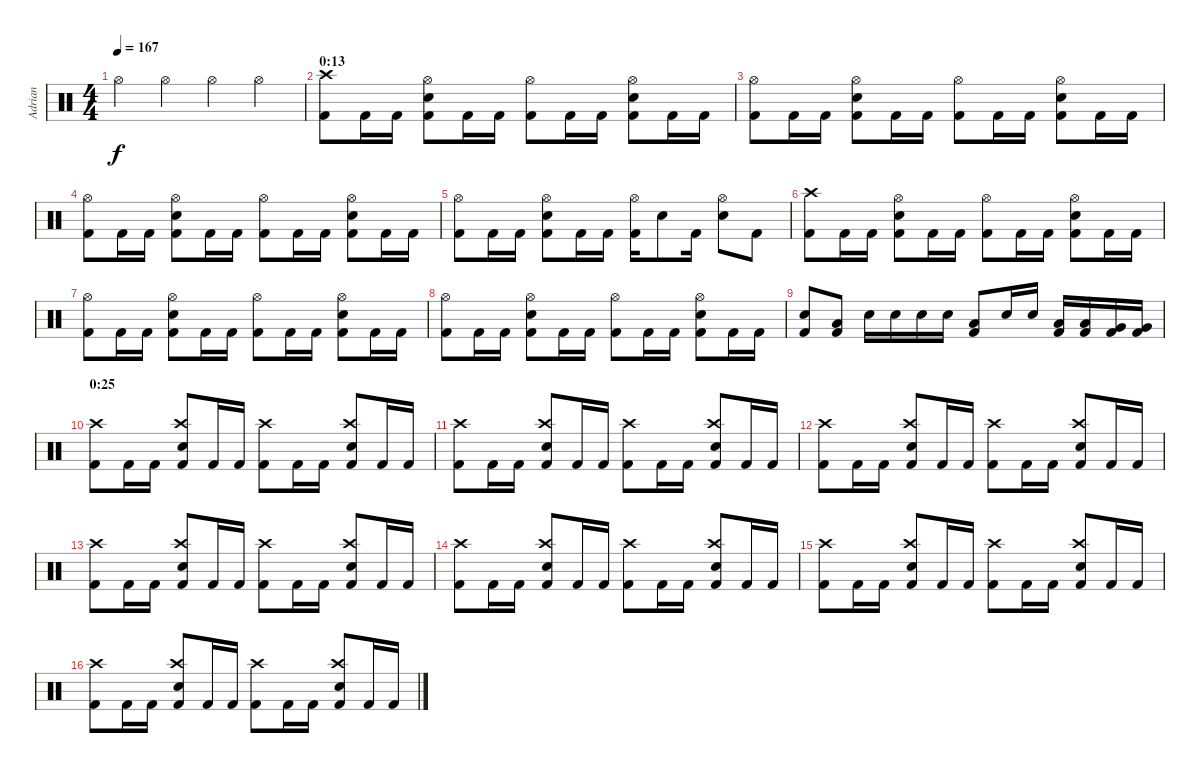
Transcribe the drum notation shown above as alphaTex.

\track ("Adrian" "Adrian") {instrument percussion}
\staff {score}
\articulation defaults
\ts (4 4)
\tempo 167
\clef neutral
\ks c "Hi-Hat (open)".4{dy f} "Hi-Hat (open)".4 "Hi-Hat (open)".4 "Hi-Hat (open)".4
|
\section ("" "0:13")
("Kick (hit) 2" "Crash high (hit)").8 "Kick (hit) 2".16 "Kick (hit) 2".16 ("Kick (hit) 2" "Snare (hit) 2" "Hi-Hat (open)").8 "Kick (hit) 2".16 "Kick (hit) 2".16 ("Kick (hit) 2" "Hi-Hat (open)").8 "Kick (hit) 2".16 "Kick (hit) 2".16 ("Kick (hit) 2" "Snare (hit) 2" "Hi-Hat (open)").8 "Kick (hit) 2".16 "Kick (hit) 2".16 |
("Kick (hit) 2" "Hi-Hat (open)").8 "Kick (hit) 2".16 "Kick (hit) 2".16 ("Kick (hit) 2" "Snare (hit) 2" "Hi-Hat (open)").8 "Kick (hit) 2".16 "Kick (hit) 2".16 ("Kick (hit) 2" "Hi-Hat (open)").8 "Kick (hit) 2".16 "Kick (hit) 2".16 ("Kick (hit) 2" "Snare (hit) 2" "Hi-Hat (open)").8 "Kick (hit) 2".16 "Kick (hit) 2".16 |
("Kick (hit) 2" "Hi-Hat (open)").8 "Kick (hit) 2".16 "Kick (hit) 2".16 ("Kick (hit) 2" "Snare (hit) 2" "Hi-Hat (open)").8 "Kick (hit) 2".16 "Kick (hit) 2".16 ("Kick (hit) 2" "Hi-Hat (open)").8 "Kick (hit) 2".16 "Kick (hit) 2".16 ("Kick (hit) 2" "Snare (hit) 2" "Hi-Hat (open)").8 "Kick (hit) 2".16 "Kick (hit) 2".16 |
("Kick (hit) 2" "Hi-Hat (open)").8 "Kick (hit) 2".16 "Kick (hit) 2".16 ("Kick (hit) 2" "Snare (hit) 2" "Hi-Hat (open)").8 "Kick (hit) 2".16 "Kick (hit) 2".16 ("Kick (hit) 2" "Hi-Hat (open)").16 "Snare (hit) 2".8 "Kick (hit) 2".16 ("Snare (hit) 2" "Hi-Hat (open)").8 "Kick (hit) 2".8 |
("Kick (hit) 2" "Crash high (hit)").8 "Kick (hit) 2".16 "Kick (hit) 2".16 ("Kick (hit) 2" "Snare (hit) 2" "Hi-Hat (open)").8 "Kick (hit) 2".16 "Kick (hit) 2".16 ("Kick (hit) 2" "Hi-Hat (open)").8 "Kick (hit) 2".16 "Kick (hit) 2".16 ("Kick (hit) 2" "Snare (hit) 2" "Hi-Hat (open)").8 "Kick (hit) 2".16 "Kick (hit) 2".16 |
("Kick (hit) 2" "Hi-Hat (open)").8 "Kick (hit) 2".16 "Kick (hit) 2".16 ("Kick (hit) 2" "Snare (hit) 2" "Hi-Hat (open)").8 "Kick (hit) 2".16 "Kick (hit) 2".16 ("Kick (hit) 2" "Hi-Hat (open)").8 "Kick (hit) 2".16 "Kick (hit) 2".16 ("Kick (hit) 2" "Snare (hit) 2" "Hi-Hat (open)").8 "Kick (hit) 2".16 "Kick (hit) 2".16 |
("Kick (hit) 2" "Hi-Hat (open)").8 "Kick (hit) 2".16 "Kick (hit) 2".16 ("Kick (hit) 2" "Snare (hit) 2" "Hi-Hat (open)").8 "Kick (hit) 2".16 "Kick (hit) 2".16 ("Kick (hit) 2" "Hi-Hat (open)").8 "Kick (hit) 2".16 "Kick (hit) 2".16 ("Kick (hit) 2" "Snare (hit) 2" "Hi-Hat (open)").8 "Kick (hit) 2".16 "Kick (hit) 2".16 |
("Kick (hit) 2" "Snare (hit) 2").8 ("Kick (hit) 2" "Low Tom (hit)").8 "Snare (hit) 2".16 "Snare (hit) 2".16 "Snare (hit) 2".16 "Snare (hit) 2".16 ("Kick (hit) 2" "Low Tom (hit)").8 "Snare (hit) 2".16 "Snare (hit) 2".16 ("Kick (hit) 2" "Low Tom (hit)").16 ("Kick (hit) 2" "Low Tom (hit)").16 ("Kick (hit) 2" "Very Low Tom (hit)").16 ("Kick (hit) 2" "Very Low Tom (hit)").16 |
\section ("" "0:25")
("Kick (hit) 2" "Crash high (hit)").8 "Kick (hit) 2".16 "Kick (hit) 2".16 ("Kick (hit) 2" "Snare (hit) 2" "Crash high (hit)").8 "Kick (hit) 2".16 "Kick (hit) 2".16 ("Kick (hit) 2" "Crash high (hit)").8 "Kick (hit) 2".16 "Kick (hit) 2".16 ("Kick (hit) 2" "Snare (hit) 2" "Crash high (hit)").8 "Kick (hit) 2".16 "Kick (hit) 2".16 |
("Kick (hit) 2" "Crash high (hit)").8 "Kick (hit) 2".16 "Kick (hit) 2".16 ("Kick (hit) 2" "Snare (hit) 2" "Crash high (hit)").8 "Kick (hit) 2".16 "Kick (hit) 2".16 ("Kick (hit) 2" "Crash high (hit)").8 "Kick (hit) 2".16 "Kick (hit) 2".16 ("Kick (hit) 2" "Snare (hit) 2" "Crash high (hit)").8 "Kick (hit) 2".16 "Kick (hit) 2".16 |
("Kick (hit) 2" "Crash high (hit)").8 "Kick (hit) 2".16 "Kick (hit) 2".16 ("Kick (hit) 2" "Snare (hit) 2" "Crash high (hit)").8 "Kick (hit) 2".16 "Kick (hit) 2".16 ("Kick (hit) 2" "Crash high (hit)").8 "Kick (hit) 2".16 "Kick (hit) 2".16 ("Kick (hit) 2" "Snare (hit) 2" "Crash high (hit)").8 "Kick (hit) 2".16 "Kick (hit) 2".16 |
("Kick (hit) 2" "Crash high (hit)").8 "Kick (hit) 2".16 "Kick (hit) 2".16 ("Kick (hit) 2" "Snare (hit) 2" "Crash high (hit)").8 "Kick (hit) 2".16 "Kick (hit) 2".16 ("Kick (hit) 2" "Crash high (hit)").8 "Kick (hit) 2".16 "Kick (hit) 2".16 ("Kick (hit) 2" "Snare (hit) 2" "Crash high (hit)").8 "Kick (hit) 2".16 "Kick (hit) 2".16 |
("Kick (hit) 2" "Crash high (hit)").8 "Kick (hit) 2".16 "Kick (hit) 2".16 ("Kick (hit) 2" "Snare (hit) 2" "Crash high (hit)").8 "Kick (hit) 2".16 "Kick (hit) 2".16 ("Kick (hit) 2" "Crash high (hit)").8 "Kick (hit) 2".16 "Kick (hit) 2".16 ("Kick (hit) 2" "Snare (hit) 2" "Crash high (hit)").8 "Kick (hit) 2".16 "Kick (hit) 2".16 |
("Kick (hit) 2" "Crash high (hit)").8 "Kick (hit) 2".16 "Kick (hit) 2".16 ("Kick (hit) 2" "Snare (hit) 2" "Crash high (hit)").8 "Kick (hit) 2".16 "Kick (hit) 2".16 ("Kick (hit) 2" "Crash high (hit)").8 "Kick (hit) 2".16 "Kick (hit) 2".16 ("Kick (hit) 2" "Snare (hit) 2" "Crash high (hit)").8 "Kick (hit) 2".16 "Kick (hit) 2".16 |
("Kick (hit) 2" "Crash high (hit)").8 "Kick (hit) 2".16 "Kick (hit) 2".16 ("Kick (hit) 2" "Snare (hit) 2" "Crash high (hit)").8 "Kick (hit) 2".16 "Kick (hit) 2".16 ("Kick (hit) 2" "Crash high (hit)").8 "Kick (hit) 2".16 "Kick (hit) 2".16 ("Kick (hit) 2" "Snare (hit) 2" "Crash high (hit)").8 "Kick (hit) 2".16 "Kick (hit) 2".16
